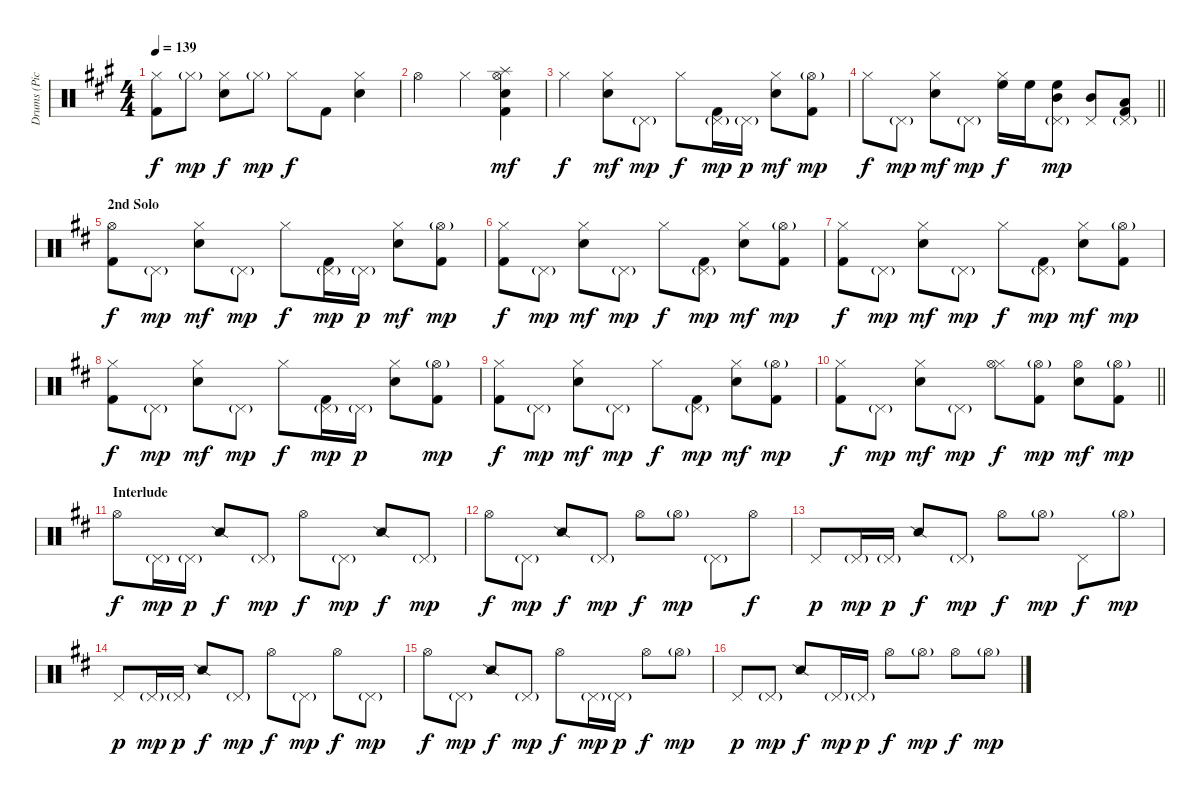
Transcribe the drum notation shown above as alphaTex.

\track ("Drums (Pick)" "Drums (Pic") {instrument percussion}
\staff {score}
\articulation defaults
\ts (4 4)
\tempo 139
\clef neutral
\ks a
("Kick (hit) 2" "Hi-Hat (closed)").8{dy f} "Hi-Hat (closed)"{g}.8{dy mp} ("Hi-Hat (closed)" "Snare (hit) 2").8{dy f} "Hi-Hat (closed)"{g}.8{dy mp} "Hi-Hat (closed)".8{dy f} "Kick (hit) 2".8 ("Hi-Hat (closed)" "Snare (hit) 2").4 |
"Hi-Hat (open)".2 "Hi-Hat (closed)".4 ("Hi-Hat (open)" "Kick (hit) 2" "Snare (hit) 2" "Splash (hit)").4{dy mf} |
"Hi-Hat (closed)".4{dy f} ("Snare (hit) 2" "Hi-Hat (closed)").8{dy mf} "Pedal Hi-Hat (hit)"{g}.8{dy mp} "Hi-Hat (closed)".8{dy f} ("Kick (hit) 2" "Pedal Hi-Hat (hit)"{g}).16{dy mp} "Pedal Hi-Hat (hit)"{g}.16{dy p} ("Snare (hit) 2" "Hi-Hat (closed)").8{dy mf} ("Kick (hit) 2" "Hi-Hat (open)"{g}).8{dy mp} |
\barLineRight lightlight "Hi-Hat (closed)".8{dy f} "Pedal Hi-Hat (hit)"{g}.8{dy mp}
("Hi-Hat (closed)" "Snare (hit) 2").8{dy mf} "Pedal Hi-Hat (hit)"{g}.8{dy mp} ("Hi-Hat (closed)" "High Floor Tom (hit)").16{dy f} "High Floor Tom (hit)".16 ("Pedal Hi-Hat (hit)"{g} "Mid Tom (hit)" "High Floor Tom (hit)").8{dy mp} ("Mid Tom (hit)" "Pedal Hi-Hat (hit)").8 ("Pedal Hi-Hat (hit)"{g} "Kick (hit) 2" "Low Tom (hit)").8 |
\section ("" "2nd Solo")
\ks d
("Hi-Hat (open)" "Kick (hit) 2").8{dy f} "Pedal Hi-Hat (hit)"{g}.8{dy mp} ("Hi-Hat (closed)" "Snare (hit) 2").8{dy mf} "Pedal Hi-Hat (hit)"{g}.8{dy mp} "Hi-Hat (closed)".8{dy f} ("Kick (hit) 2" "Pedal Hi-Hat (hit)"{g}).16{dy mp} "Pedal Hi-Hat (hit)"{g}.16{dy p} ("Snare (hit) 2" "Hi-Hat (closed)").8{dy mf} ("Kick (hit) 2" "Hi-Hat (open)"{g}).8{dy mp} |
("Hi-Hat (closed)" "Kick (hit) 2").8{dy f} "Pedal Hi-Hat (hit)"{g}.8{dy mp} ("Snare (hit) 2" "Hi-Hat (closed)").8{dy mf} "Pedal Hi-Hat (hit)"{g}.8{dy mp} "Hi-Hat (closed)".8{dy f} ("Pedal Hi-Hat (hit)"{g} "Kick (hit) 2").8{dy mp} ("Hi-Hat (closed)" "Snare (hit) 2").8{dy mf} ("Hi-Hat (open)"{g} "Kick (hit) 2").8{dy mp} |
("Hi-Hat (closed)" "Kick (hit) 2").8{dy f} "Pedal Hi-Hat (hit)"{g}.8{dy mp} ("Hi-Hat (closed)" "Snare (hit) 2").8{dy mf} "Pedal Hi-Hat (hit)"{g}.8{dy mp} "Hi-Hat (closed)".8{dy f} ("Pedal Hi-Hat (hit)"{g} "Kick (hit) 2").8{dy mp} ("Snare (hit) 2" "Hi-Hat (closed)").8{dy mf} ("Hi-Hat (open)"{g} "Kick (hit) 2").8{dy mp} |
("Hi-Hat (closed)" "Kick (hit) 2").8{dy f} "Pedal Hi-Hat (hit)"{g}.8{dy mp} ("Hi-Hat (closed)" "Snare (hit) 2").8{dy mf} "Pedal Hi-Hat (hit)"{g}.8{dy mp} "Hi-Hat (closed)".8{dy f} ("Kick (hit) 2" "Pedal Hi-Hat (hit)"{g}).16{dy mp} "Pedal Hi-Hat (hit)"{g}.16{dy p} ("Snare (hit) 2" "Hi-Hat (closed)").8 ("Hi-Hat (open)"{g} "Kick (hit) 2").8{dy mp} |
("Kick (hit) 2" "Hi-Hat (closed)").8{dy f} "Pedal Hi-Hat (hit)"{g}.8{dy mp} ("Hi-Hat (closed)" "Snare (hit) 2").8{dy mf} "Pedal Hi-Hat (hit)"{g}.8{dy mp} "Hi-Hat (closed)".8{dy f} ("Pedal Hi-Hat (hit)"{g} "Kick (hit) 2").8{dy mp} ("Snare (hit) 2" "Hi-Hat (closed)").8{dy mf} ("Kick (hit) 2" "Hi-Hat (open)"{g}).8{dy mp} |
\barLineRight lightlight
("Kick (hit) 2" "Hi-Hat (closed)").8{dy f} "Pedal Hi-Hat (hit)"{g}.8{dy mp} ("Snare (hit) 2" "Hi-Hat (closed)").8{dy mf} "Pedal Hi-Hat (hit)"{g}.8{dy mp} ("Hi-Hat (closed)" "Hi-Hat (open)").8{dy f} ("Hi-Hat (open)"{g} "Kick (hit) 2").8{dy mp} ("Hi-Hat (open)" "Snare (hit) 2").8{dy mf} ("Hi-Hat (open)"{g} "Kick (hit) 2").8{dy mp} |
\section ("" "Interlude")
"Hi-Hat (open)".8{dy f} "Pedal Hi-Hat (hit)"{g}.16{dy mp} "Pedal Hi-Hat (hit)"{g}.16{dy p} "Snare (side stick) 2".8{dy f} "Pedal Hi-Hat (hit)"{g}.8{dy mp} "Hi-Hat (open)".8{dy f} "Pedal Hi-Hat (hit)"{g}.8{dy mp} "Snare (side stick) 2".8{dy f} "Pedal Hi-Hat (hit)"{g}.8{dy mp} |
"Hi-Hat (open)".8{dy f} "Pedal Hi-Hat (hit)"{g}.8{dy mp} "Snare (side stick) 2".8{dy f} "Pedal Hi-Hat (hit)"{g}.8{dy mp} "Hi-Hat (open)".8{dy f} "Hi-Hat (open)"{g}.8{dy mp} "Pedal Hi-Hat (hit)"{g}.8 "Hi-Hat (open)".8{dy f} |
"Pedal Hi-Hat (hit)".8{dy p} "Pedal Hi-Hat (hit)"{g}.16{dy mp} "Pedal Hi-Hat (hit)"{g}.16{dy p} "Snare (side stick) 2".8{dy f} "Pedal Hi-Hat (hit)"{g}.8{dy mp} "Hi-Hat (open)".8{dy f} "Hi-Hat (open)"{g}.8{dy mp} "Pedal Hi-Hat (hit)".8{dy f} "Hi-Hat (open)"{g}.8{dy mp} |
"Pedal Hi-Hat (hit)".8{dy p} "Pedal Hi-Hat (hit)"{g}.16{dy mp} "Pedal Hi-Hat (hit)"{g}.16{dy p} "Snare (side stick) 2".8{dy f} "Pedal Hi-Hat (hit)"{g}.8{dy mp} "Hi-Hat (open)".8{dy f} "Pedal Hi-Hat (hit)"{g}.8{dy mp} "Hi-Hat (open)".8{dy f} "Pedal Hi-Hat (hit)"{g}.8{dy mp} |
"Hi-Hat (open)".8{dy f} "Pedal Hi-Hat (hit)"{g}.8{dy mp} "Snare (side stick) 2".8{dy f} "Pedal Hi-Hat (hit)"{g}.8{dy mp} "Hi-Hat (open)".8{dy f} "Pedal Hi-Hat (hit)"{g}.16{dy mp} "Pedal Hi-Hat (hit)"{g}.16{dy p} "Hi-Hat (open)".8{dy f} "Hi-Hat (open)"{g}.8{dy mp} |
"Pedal Hi-Hat (hit)".8{dy p} "Pedal Hi-Hat (hit)"{g}.8{dy mp} "Snare (side stick) 2".8{dy f} "Pedal Hi-Hat (hit)"{g}.16{dy mp} "Pedal Hi-Hat (hit)"{g}.16{dy p} "Hi-Hat (open)".8{dy f} "Hi-Hat (open)"{g}.8{dy mp} "Hi-Hat (open)".8{dy f} "Hi-Hat (open)"{g}.8{dy mp}
